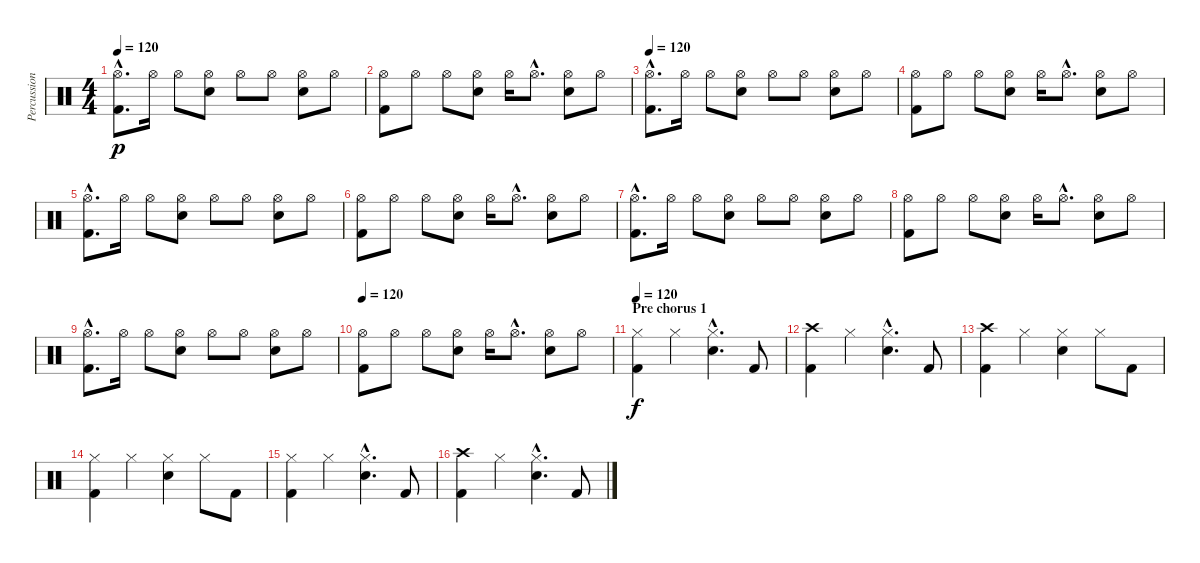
\track ("Percussion" "Percussion") {instrument percussion}
\staff {score}
\articulation defaults
\ts (4 4)
\tempo 120
\clef neutral
\ks c
("Hi-Hat (open)"{hac} "Kick (hit) 2"{hac}).8{d dy p} "Hi-Hat (open)".16 "Hi-Hat (open)".8 ("Hi-Hat (open)" "Electric Snare (hit)").8 "Hi-Hat (open)".8 "Hi-Hat (open)".8 ("Hi-Hat (open)" "Electric Snare (hit)").8 "Hi-Hat (open)".8 |
("Hi-Hat (open)" "Kick (hit) 2").8 "Hi-Hat (open)".8 "Hi-Hat (open)".8 ("Hi-Hat (open)" "Electric Snare (hit)").8 "Hi-Hat (open)".16 "Hi-Hat (open)"{hac}.8{d} ("Hi-Hat (open)" "Electric Snare (hit)").8 "Hi-Hat (open)".8 |
\tempo 120
("Hi-Hat (open)"{hac} "Kick (hit) 2"{hac}).8{d} "Hi-Hat (open)".16 "Hi-Hat (open)".8 ("Hi-Hat (open)" "Electric Snare (hit)").8 "Hi-Hat (open)".8 "Hi-Hat (open)".8 ("Hi-Hat (open)" "Electric Snare (hit)").8 "Hi-Hat (open)".8 |
("Hi-Hat (open)" "Kick (hit) 2").8 "Hi-Hat (open)".8 "Hi-Hat (open)".8 ("Hi-Hat (open)" "Electric Snare (hit)").8 "Hi-Hat (open)".16 "Hi-Hat (open)"{hac}.8{d} ("Hi-Hat (open)" "Electric Snare (hit)").8 "Hi-Hat (open)".8 |
("Hi-Hat (open)"{hac} "Kick (hit) 2"{hac}).8{d} "Hi-Hat (open)".16 "Hi-Hat (open)".8 ("Hi-Hat (open)" "Electric Snare (hit)").8 "Hi-Hat (open)".8 "Hi-Hat (open)".8 ("Hi-Hat (open)" "Electric Snare (hit)").8 "Hi-Hat (open)".8 |
("Hi-Hat (open)" "Kick (hit) 2").8 "Hi-Hat (open)".8 "Hi-Hat (open)".8 ("Hi-Hat (open)" "Electric Snare (hit)").8 "Hi-Hat (open)".16 "Hi-Hat (open)"{hac}.8{d} ("Hi-Hat (open)" "Electric Snare (hit)").8 "Hi-Hat (open)".8 |
("Hi-Hat (open)"{hac} "Kick (hit) 2"{hac}).8{d} "Hi-Hat (open)".16 "Hi-Hat (open)".8 ("Hi-Hat (open)" "Electric Snare (hit)").8 "Hi-Hat (open)".8 "Hi-Hat (open)".8 ("Hi-Hat (open)" "Electric Snare (hit)").8 "Hi-Hat (open)".8 |
("Hi-Hat (open)" "Kick (hit) 2").8 "Hi-Hat (open)".8 "Hi-Hat (open)".8 ("Hi-Hat (open)" "Electric Snare (hit)").8 "Hi-Hat (open)".16 "Hi-Hat (open)"{hac}.8{d} ("Hi-Hat (open)" "Electric Snare (hit)").8 "Hi-Hat (open)".8 |
("Hi-Hat (open)"{hac} "Kick (hit) 2"{hac}).8{d} "Hi-Hat (open)".16 "Hi-Hat (open)".8 ("Hi-Hat (open)" "Electric Snare (hit)").8 "Hi-Hat (open)".8 "Hi-Hat (open)".8 ("Hi-Hat (open)" "Electric Snare (hit)").8 "Hi-Hat (open)".8 |
\tempo 120
("Hi-Hat (open)" "Kick (hit) 2").8 "Hi-Hat (open)".8 "Hi-Hat (open)".8 ("Hi-Hat (open)" "Electric Snare (hit)").8 "Hi-Hat (open)".16 "Hi-Hat (open)"{hac}.8{d} ("Hi-Hat (open)" "Electric Snare (hit)").8 "Hi-Hat (open)".8 |
\section ("" "Pre chorus 1")
\tempo 120
("Hi-Hat (closed)" "Kick (hit) 2").4{dy f} "Hi-Hat (closed)".4 ("Hi-Hat (closed)"{hac} "Electric Snare (hit)"{hac}).4{d} "Kick (hit) 2".8 |
("Crash high (hit)" "Kick (hit) 2").4 "Hi-Hat (closed)".4 ("Hi-Hat (closed)"{hac} "Electric Snare (hit)"{hac}).4{d} "Kick (hit) 2".8 |
("Crash high (hit)" "Kick (hit) 2").4 "Hi-Hat (closed)".4 ("Hi-Hat (closed)" "Electric Snare (hit)").4 "Hi-Hat (closed)".8 "Kick (hit) 2".8 |
("Hi-Hat (closed)" "Kick (hit) 2").4 "Hi-Hat (closed)".4 ("Hi-Hat (closed)" "Electric Snare (hit)").4 "Hi-Hat (closed)".8 "Kick (hit) 2".8 |
("Hi-Hat (closed)" "Kick (hit) 2").4 "Hi-Hat (closed)".4 ("Hi-Hat (closed)"{hac} "Electric Snare (hit)"{hac}).4{d} "Kick (hit) 2".8 |
("Crash high (hit)" "Kick (hit) 2").4 "Hi-Hat (closed)".4 ("Hi-Hat (closed)"{hac} "Electric Snare (hit)"{hac}).4{d} "Kick (hit) 2".8
